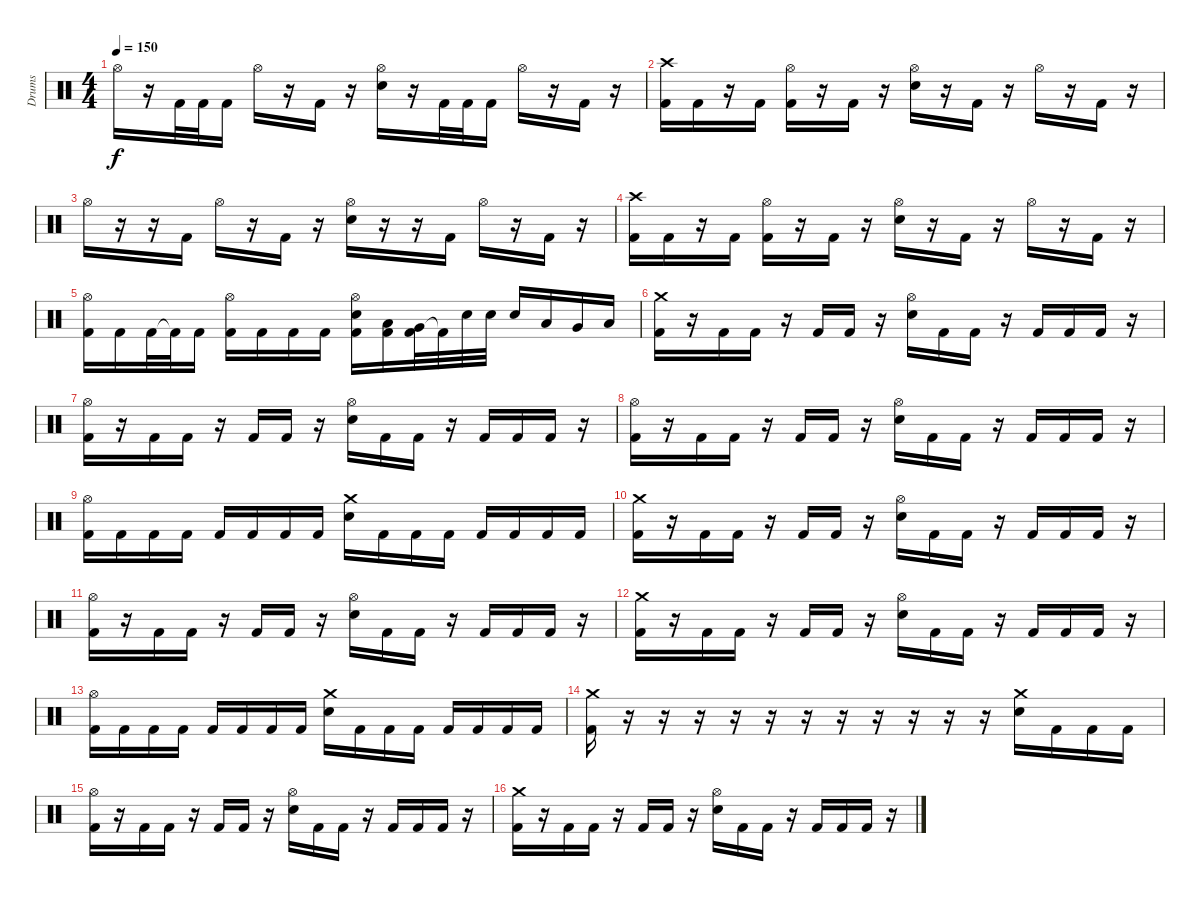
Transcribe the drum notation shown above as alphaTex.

\track ("Drums" "Drums") {instrument percussion}
\staff {score}
\articulation defaults
\ts (4 4)
\tempo 150
\clef neutral
\ks c "Hi-Hat (open)".16{dy f}
r.16 "Kick (hit) 2".32 "Kick (hit) 2".32 "Kick (hit) 2".16 "Hi-Hat (open)".16 r.16 "Kick (hit) 2".16 r.16 ("Hi-Hat (open)" "Snare (hit) 2").16 r.16 "Kick (hit) 2".32 "Kick (hit) 2".32 "Kick (hit) 2".16 "Hi-Hat (open)".16 r.16 "Kick (hit) 2".16 r.16 |
("Crash high (hit)" "Kick (hit) 2").16 "Kick (hit) 2".16 r.16 "Kick (hit) 2".16 ("Hi-Hat (open)" "Kick (hit) 2").16 r.16 "Kick (hit) 2".16 r.16 ("Hi-Hat (open)" "Snare (hit) 2").16 r.16 "Kick (hit) 2".16 r.16 "Hi-Hat (open)".16 r.16 "Kick (hit) 2".16 r.16 |
"Hi-Hat (open)".16 r.16 r.16 "Kick (hit) 2".16 "Hi-Hat (open)".16 r.16 "Kick (hit) 2".16 r.16 ("Hi-Hat (open)" "Snare (hit) 2").16 r.16 r.16 "Kick (hit) 2".16 "Hi-Hat (open)".16 r.16 "Kick (hit) 2".16 r.16 |
("Crash high (hit)" "Kick (hit) 2").16 "Kick (hit) 2".16 r.16 "Kick (hit) 2".16 ("Hi-Hat (open)" "Kick (hit) 2").16 r.16 "Kick (hit) 2".16 r.16 ("Hi-Hat (open)" "Snare (hit) 2").16 r.16 "Kick (hit) 2".16 r.16 "Hi-Hat (open)".16 r.16 "Kick (hit) 2".16 r.16 |
("Hi-Hat (open)" "Kick (hit) 2").16 "Kick (hit) 2".16 "Kick (hit) 2".32 "Kick (hit) 2"{t}.32 "Kick (hit) 2".16 ("Hi-Hat (open)" "Kick (hit) 2").16 "Kick (hit) 2".16 "Kick (hit) 2".16 "Kick (hit) 2".16 ("Hi-Hat (open)" "Snare (hit) 2" "Kick (hit) 2").16 ("Low Tom (hit)" "Kick (hit) 2").16 ("Very Low Tom (hit)" "Kick (hit) 2").32 "Kick (hit) 2"{t}.32 "Snare (hit) 2".32 "Snare (hit) 2".32 "Snare (hit) 2".16 "Low Tom (hit)".16 "Very Low Tom (hit)".16 "Low Floor Tom (hit)".16 |
("Crash medium (hit)" "Kick (hit) 2").16 r.16 "Kick (hit) 2".16 "Kick (hit) 2".16 r.16 "Kick (hit) 2".16 "Kick (hit) 2".16 r.16 ("Hi-Hat (open)" "Snare (hit) 2").16 "Kick (hit) 2".16 "Kick (hit) 2".16 r.16 "Kick (hit) 2".16 "Kick (hit) 2".16 "Kick (hit) 2".16 r.16 |
("Hi-Hat (open)" "Kick (hit) 2").16 r.16 "Kick (hit) 2".16 "Kick (hit) 2".16 r.16 "Kick (hit) 2".16 "Kick (hit) 2".16 r.16 ("Hi-Hat (open)" "Snare (hit) 2").16 "Kick (hit) 2".16 "Kick (hit) 2".16 r.16 "Kick (hit) 2".16 "Kick (hit) 2".16 "Kick (hit) 2".16 r.16 |
("Hi-Hat (open)" "Kick (hit) 2").16 r.16 "Kick (hit) 2".16 "Kick (hit) 2".16 r.16 "Kick (hit) 2".16 "Kick (hit) 2".16 r.16 ("Hi-Hat (open)" "Snare (hit) 2").16 "Kick (hit) 2".16 "Kick (hit) 2".16 r.16 "Kick (hit) 2".16 "Kick (hit) 2".16 "Kick (hit) 2".16 r.16 |
("Hi-Hat (open)" "Kick (hit) 2").16 "Kick (hit) 2".16 "Kick (hit) 2".16 "Kick (hit) 2".16 "Kick (hit) 2".16 "Kick (hit) 2".16 "Kick (hit) 2".16 "Kick (hit) 2".16 ("Crash medium (hit)" "Snare (hit) 2").16 "Kick (hit) 2".16 "Kick (hit) 2".16 "Kick (hit) 2".16 "Kick (hit) 2".16 "Kick (hit) 2".16 "Kick (hit) 2".16 "Kick (hit) 2".16 |
("Crash medium (hit)" "Kick (hit) 2").16 r.16 "Kick (hit) 2".16 "Kick (hit) 2".16 r.16 "Kick (hit) 2".16 "Kick (hit) 2".16 r.16 ("Hi-Hat (open)" "Snare (hit) 2").16 "Kick (hit) 2".16 "Kick (hit) 2".16 r.16 "Kick (hit) 2".16 "Kick (hit) 2".16 "Kick (hit) 2".16 r.16 |
("Hi-Hat (open)" "Kick (hit) 2").16 r.16 "Kick (hit) 2".16 "Kick (hit) 2".16 r.16 "Kick (hit) 2".16 "Kick (hit) 2".16 r.16 ("Hi-Hat (open)" "Snare (hit) 2").16 "Kick (hit) 2".16 "Kick (hit) 2".16 r.16 "Kick (hit) 2".16 "Kick (hit) 2".16 "Kick (hit) 2".16 r.16 |
("Crash medium (hit)" "Kick (hit) 2").16 r.16 "Kick (hit) 2".16 "Kick (hit) 2".16 r.16 "Kick (hit) 2".16 "Kick (hit) 2".16 r.16 ("Hi-Hat (open)" "Snare (hit) 2").16 "Kick (hit) 2".16 "Kick (hit) 2".16 r.16 "Kick (hit) 2".16 "Kick (hit) 2".16 "Kick (hit) 2".16 r.16 |
("Hi-Hat (open)" "Kick (hit) 2").16 "Kick (hit) 2".16 "Kick (hit) 2".16 "Kick (hit) 2".16 "Kick (hit) 2".16 "Kick (hit) 2".16 "Kick (hit) 2".16 "Kick (hit) 2".16 ("Crash medium (hit)" "Snare (hit) 2").16 "Kick (hit) 2".16 "Kick (hit) 2".16 "Kick (hit) 2".16 "Kick (hit) 2".16 "Kick (hit) 2".16 "Kick (hit) 2".16 "Kick (hit) 2".16 |
("Crash medium (hit)" "Kick (hit) 2").16 r.16 r.16 r.16 r.16 r.16 r.16 r.16 r.16 r.16 r.16 r.16 ("Crash medium (hit)" "Snare (hit) 2").16 "Kick (hit) 2".16 "Kick (hit) 2".16 "Kick (hit) 2".16 |
("Hi-Hat (open)" "Kick (hit) 2").16 r.16 "Kick (hit) 2".16 "Kick (hit) 2".16 r.16 "Kick (hit) 2".16 "Kick (hit) 2".16 r.16 ("Hi-Hat (open)" "Snare (hit) 2").16 "Kick (hit) 2".16 "Kick (hit) 2".16 r.16 "Kick (hit) 2".16 "Kick (hit) 2".16 "Kick (hit) 2".16 r.16 |
("Crash medium (hit)" "Kick (hit) 2").16 r.16 "Kick (hit) 2".16 "Kick (hit) 2".16 r.16 "Kick (hit) 2".16 "Kick (hit) 2".16 r.16 ("Hi-Hat (open)" "Snare (hit) 2").16 "Kick (hit) 2".16 "Kick (hit) 2".16 r.16 "Kick (hit) 2".16 "Kick (hit) 2".16 "Kick (hit) 2".16 r.16
